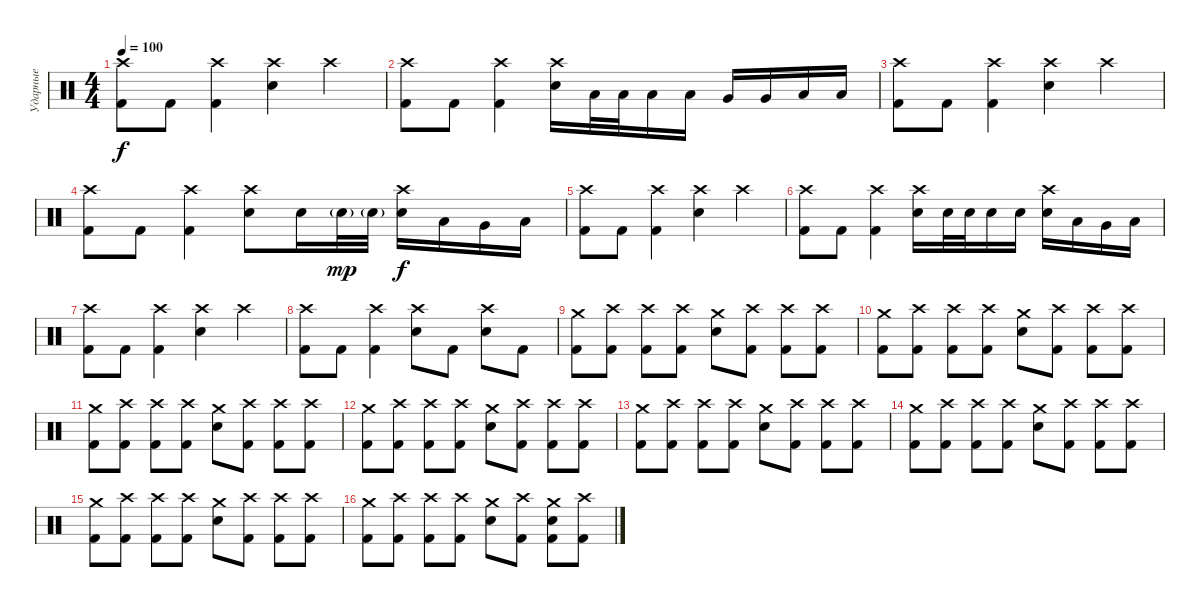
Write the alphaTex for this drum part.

\track ("Ударные" "Ударные") {instrument percussion}
\staff {score}
\articulation defaults
\ts (4 4)
\tempo 100
\clef neutral
\ks c
("Crash high (hit)" "Kick (hit) 2").8{dy f} "Kick (hit) 2".8 ("Crash high (hit)" "Kick (hit) 2").4 ("Crash high (hit)" "Electric Snare (hit)").4 "Crash high (hit)".4 |
("Crash high (hit)" "Kick (hit) 2").8 "Kick (hit) 2".8 ("Crash high (hit)" "Kick (hit) 2").4 ("Crash high (hit)" "Electric Snare (hit)").16 "Low Tom (hit)".32 "Low Tom (hit)".32 "Low Tom (hit)".16 "Low Tom (hit)".16 "Very Low Tom (hit)".16 "Very Low Tom (hit)".16 "Low Floor Tom (hit)".16 "Low Floor Tom (hit)".16 |
("Crash high (hit)" "Kick (hit) 2").8 "Kick (hit) 2".8 ("Crash high (hit)" "Kick (hit) 2").4 ("Crash high (hit)" "Electric Snare (hit)").4 "Crash high (hit)".4 |
("Crash high (hit)" "Kick (hit) 2").8 "Kick (hit) 2".8 ("Crash high (hit)" "Kick (hit) 2").4 ("Crash high (hit)" "Electric Snare (hit)").8 "Electric Snare (hit)".16 "Electric Snare (hit)"{g}.32{dy mp} "Electric Snare (hit)"{g}.32 ("Crash high (hit)" "Electric Snare (hit)").16{dy f} "Low Tom (hit)".16 "Very Low Tom (hit)".16 "Low Floor Tom (hit)".16 |
("Crash high (hit)" "Kick (hit) 2").8 "Kick (hit) 2".8 ("Crash high (hit)" "Kick (hit) 2").4 ("Crash high (hit)" "Electric Snare (hit)").4 "Crash high (hit)".4 |
("Crash high (hit)" "Kick (hit) 2").8 "Kick (hit) 2".8 ("Crash high (hit)" "Kick (hit) 2").4 ("Crash high (hit)" "Electric Snare (hit)").16 "Electric Snare (hit)".32 "Electric Snare (hit)".32 "Electric Snare (hit)".16 "Electric Snare (hit)".16 ("Crash high (hit)" "Electric Snare (hit)").16 "Low Tom (hit)".16 "Very Low Tom (hit)".16 "Low Floor Tom (hit)".16 |
("Crash high (hit)" "Kick (hit) 2").8 "Kick (hit) 2".8 ("Crash high (hit)" "Kick (hit) 2").4 ("Crash high (hit)" "Electric Snare (hit)").4 "Crash high (hit)".4 |
("Crash high (hit)" "Kick (hit) 2").8 "Kick (hit) 2".8 ("Crash high (hit)" "Kick (hit) 2").4 ("Crash high (hit)" "Electric Snare (hit)").8 "Kick (hit) 2".8 ("Crash high (hit)" "Electric Snare (hit)").8 "Kick (hit) 2".8 |
("Crash medium (hit)" "Kick (hit) 2").8 ("Crash high (hit)" "Kick (hit) 2").8 ("Crash high (hit)" "Kick (hit) 2").8 ("Crash high (hit)" "Kick (hit) 2").8 ("Crash medium (hit)" "Electric Snare (hit)").8 ("Crash high (hit)" "Kick (hit) 2").8 ("Crash high (hit)" "Kick (hit) 2").8 ("Crash high (hit)" "Kick (hit) 2").8 |
("Crash medium (hit)" "Kick (hit) 2").8 ("Crash high (hit)" "Kick (hit) 2").8 ("Crash high (hit)" "Kick (hit) 2").8 ("Crash high (hit)" "Kick (hit) 2").8 ("Crash medium (hit)" "Electric Snare (hit)").8 ("Crash high (hit)" "Kick (hit) 2").8 ("Crash high (hit)" "Kick (hit) 2").8 ("Crash high (hit)" "Kick (hit) 2").8 |
("Crash medium (hit)" "Kick (hit) 2").8 ("Crash high (hit)" "Kick (hit) 2").8 ("Crash high (hit)" "Kick (hit) 2").8 ("Crash high (hit)" "Kick (hit) 2").8 ("Crash medium (hit)" "Electric Snare (hit)").8 ("Crash high (hit)" "Kick (hit) 2").8 ("Crash high (hit)" "Kick (hit) 2").8 ("Crash high (hit)" "Kick (hit) 2").8 |
("Crash medium (hit)" "Kick (hit) 2").8 ("Crash high (hit)" "Kick (hit) 2").8 ("Crash high (hit)" "Kick (hit) 2").8 ("Crash high (hit)" "Kick (hit) 2").8 ("Crash medium (hit)" "Electric Snare (hit)").8 ("Crash high (hit)" "Kick (hit) 2").8 ("Crash high (hit)" "Kick (hit) 2").8 ("Crash high (hit)" "Kick (hit) 2").8 |
("Crash medium (hit)" "Kick (hit) 2").8 ("Crash high (hit)" "Kick (hit) 2").8 ("Crash high (hit)" "Kick (hit) 2").8 ("Crash high (hit)" "Kick (hit) 2").8 ("Crash medium (hit)" "Electric Snare (hit)").8 ("Crash high (hit)" "Kick (hit) 2").8 ("Crash high (hit)" "Kick (hit) 2").8 ("Crash high (hit)" "Kick (hit) 2").8 |
("Crash medium (hit)" "Kick (hit) 2").8 ("Crash high (hit)" "Kick (hit) 2").8 ("Crash high (hit)" "Kick (hit) 2").8 ("Crash high (hit)" "Kick (hit) 2").8 ("Crash medium (hit)" "Electric Snare (hit)").8 ("Crash high (hit)" "Kick (hit) 2").8 ("Crash high (hit)" "Kick (hit) 2").8 ("Crash high (hit)" "Kick (hit) 2").8 |
("Crash medium (hit)" "Kick (hit) 2").8 ("Crash high (hit)" "Kick (hit) 2").8 ("Crash high (hit)" "Kick (hit) 2").8 ("Crash high (hit)" "Kick (hit) 2").8 ("Crash medium (hit)" "Electric Snare (hit)").8 ("Crash high (hit)" "Kick (hit) 2").8 ("Crash high (hit)" "Kick (hit) 2").8 ("Crash high (hit)" "Kick (hit) 2").8 |
("Crash medium (hit)" "Kick (hit) 2").8 ("Crash high (hit)" "Kick (hit) 2").8 ("Crash high (hit)" "Kick (hit) 2").8 ("Crash high (hit)" "Kick (hit) 2").8 ("Crash medium (hit)" "Electric Snare (hit)").8 ("Crash high (hit)" "Kick (hit) 2").8 ("Crash medium (hit)" "Electric Snare (hit)" "Kick (hit) 2").8 ("Crash high (hit)" "Kick (hit) 2").8
